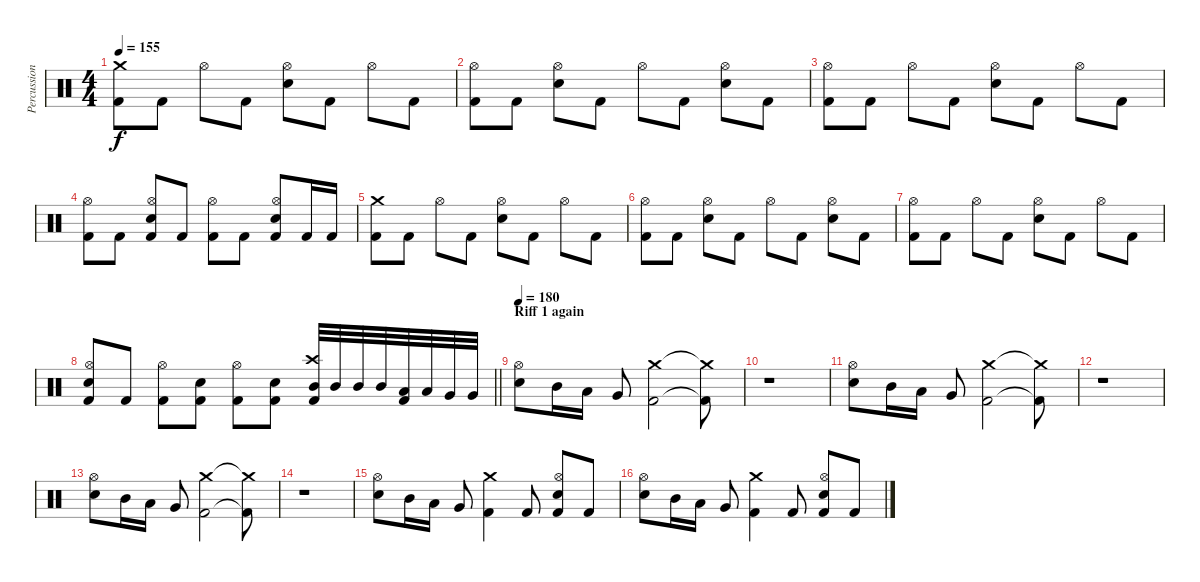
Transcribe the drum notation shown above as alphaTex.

\track ("Percussion" "Percussion") {instrument percussion}
\staff {score}
\articulation defaults
\ts (4 4)
\tempo 155
\clef neutral
\ks c
("Crash medium (hit)" "Kick (hit) 2").8{dy f} "Kick (hit) 2".8 "Hi-Hat (open)".8 "Kick (hit) 2".8 ("Hi-Hat (open)" "Snare (hit) 2").8 "Kick (hit) 2".8 "Hi-Hat (open)".8 "Kick (hit) 2".8 |
("Hi-Hat (open)" "Kick (hit) 2").8 "Kick (hit) 2".8 ("Hi-Hat (open)" "Snare (hit) 2").8 "Kick (hit) 2".8 "Hi-Hat (open)".8 "Kick (hit) 2".8 ("Hi-Hat (open)" "Snare (hit) 2").8 "Kick (hit) 2".8 |
("Hi-Hat (open)" "Kick (hit) 2").8 "Kick (hit) 2".8 "Hi-Hat (open)".8 "Kick (hit) 2".8 ("Hi-Hat (open)" "Snare (hit) 2").8 "Kick (hit) 2".8 "Hi-Hat (open)".8 "Kick (hit) 2".8 |
("Hi-Hat (open)" "Kick (hit) 2").8 "Kick (hit) 2".8 ("Kick (hit) 2" "Hi-Hat (open)" "Snare (hit) 2").8 "Kick (hit) 2".8 ("Hi-Hat (open)" "Kick (hit) 2").8 "Kick (hit) 2".8 ("Kick (hit) 2" "Hi-Hat (open)" "Snare (hit) 2").8 "Kick (hit) 2".16 "Kick (hit) 2".16 |
("Crash medium (hit)" "Kick (hit) 2").8 "Kick (hit) 2".8 "Hi-Hat (open)".8 "Kick (hit) 2".8 ("Hi-Hat (open)" "Snare (hit) 2").8 "Kick (hit) 2".8 "Hi-Hat (open)".8 "Kick (hit) 2".8 |
("Hi-Hat (open)" "Kick (hit) 2").8 "Kick (hit) 2".8 ("Hi-Hat (open)" "Snare (hit) 2").8 "Kick (hit) 2".8 "Hi-Hat (open)".8 "Kick (hit) 2".8 ("Hi-Hat (open)" "Snare (hit) 2").8 "Kick (hit) 2".8 |
("Hi-Hat (open)" "Kick (hit) 2").8 "Kick (hit) 2".8 "Hi-Hat (open)".8 "Kick (hit) 2".8 ("Hi-Hat (open)" "Snare (hit) 2").8 "Kick (hit) 2".8 "Hi-Hat (open)".8 "Kick (hit) 2".8 |
\barLineRight lightlight
("Kick (hit) 2" "Hi-Hat (open)" "Snare (hit) 2").8 "Kick (hit) 2".8 ("Hi-Hat (open)" "Kick (hit) 2").8 ("Kick (hit) 2" "Snare (hit) 2").8 ("Hi-Hat (open)" "Kick (hit) 2").8 ("Kick (hit) 2" "Snare (hit) 2").8 ("Kick (hit) 2" "Crash high (hit)" "Mid Tom (hit)").32 "Mid Tom (hit)".32 "Mid Tom (hit)".32 "Mid Tom (hit)".32 ("Kick (hit) 2" "Low Tom (hit)").32 "Low Tom (hit)".32 "Very Low Tom (hit)".32 "Very Low Tom (hit)".32 |
\section ("" "Riff 1 again")
\tempo 180
("Hi-Hat (open)" "Snare (hit) 2").8 "Mid Tom (hit)".16 "Low Tom (hit)".16 "Very Low Tom (hit)".8 ("Crash medium (hit)" "Kick (hit) 2").2 ("Crash medium (hit)"{t} "Kick (hit) 2"{t}).8 |
r.1 |
("Hi-Hat (open)" "Snare (hit) 2").8 "Mid Tom (hit)".16 "Low Tom (hit)".16 "Very Low Tom (hit)".8 ("Crash medium (hit)" "Kick (hit) 2").2 ("Crash medium (hit)"{t} "Kick (hit) 2"{t}).8 |
r.1 |
("Hi-Hat (open)" "Snare (hit) 2").8 "Mid Tom (hit)".16 "Low Tom (hit)".16 "Very Low Tom (hit)".8 ("Crash medium (hit)" "Kick (hit) 2").2 ("Crash medium (hit)"{t} "Kick (hit) 2"{t}).8 |
r.1 |
("Hi-Hat (open)" "Snare (hit) 2").8 "Mid Tom (hit)".16 "Low Tom (hit)".16 "Very Low Tom (hit)".8 ("Crash medium (hit)" "Kick (hit) 2").4 "Kick (hit) 2".8 ("Kick (hit) 2" "Hi-Hat (open)" "Snare (hit) 2").8 "Kick (hit) 2".8 |
("Hi-Hat (open)" "Snare (hit) 2").8 "Mid Tom (hit)".16 "Low Tom (hit)".16 "Very Low Tom (hit)".8 ("Crash medium (hit)" "Kick (hit) 2").4 "Kick (hit) 2".8 ("Kick (hit) 2" "Hi-Hat (open)" "Snare (hit) 2").8 "Kick (hit) 2".8
